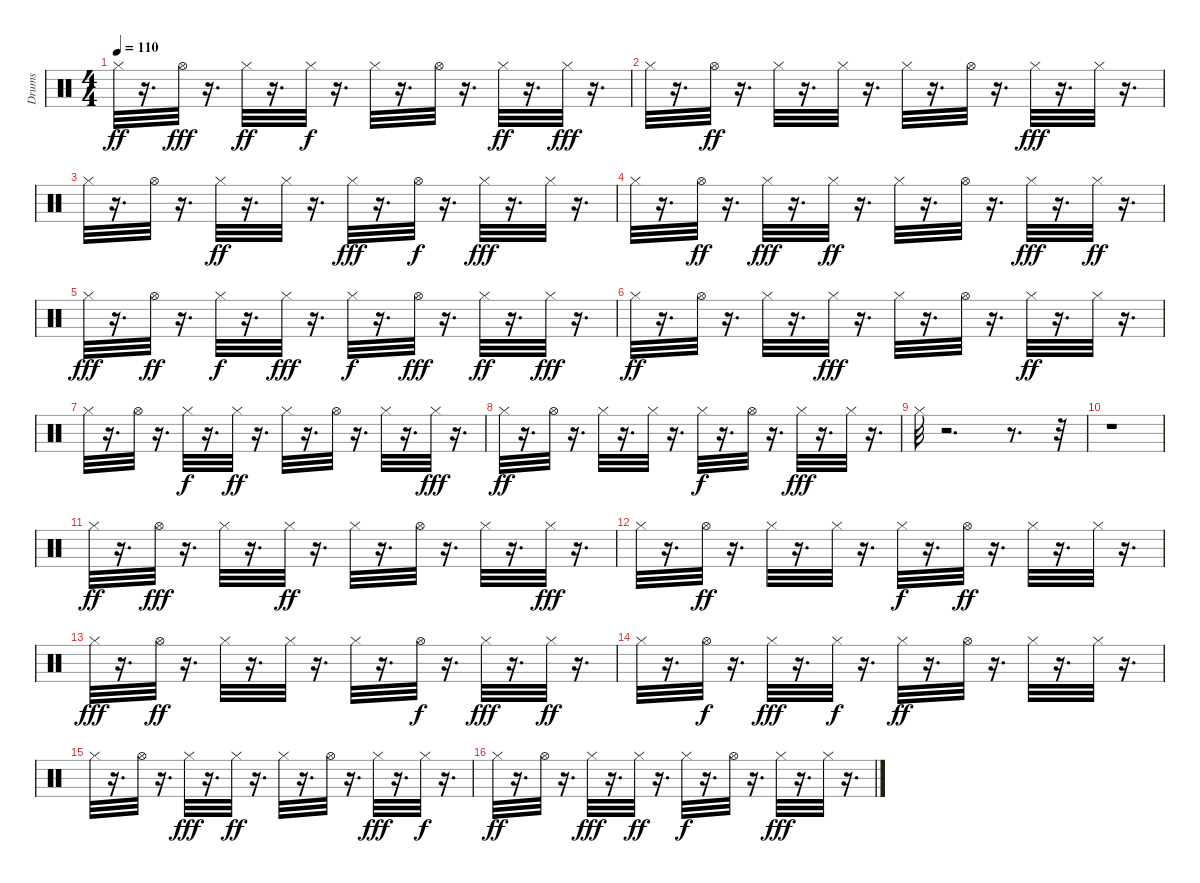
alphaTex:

\track ("Drums" "Drums") {instrument percussion}
\staff {score}
\articulation defaults
\ts (4 4)
\tempo 110
\clef neutral
\ks c "Hi-Hat (closed)".32{dy ff}
r.16{d} "Hi-Hat (open)".32{dy fff} r.16{d} "Hi-Hat (closed)".32{dy ff} r.16{d} "Hi-Hat (closed)".32{dy f} r.16{d} "Hi-Hat (closed)".32 r.16{d} "Hi-Hat (open)".32 r.16{d} "Hi-Hat (closed)".32{dy ff} r.16{d} "Hi-Hat (closed)".32{dy fff} r.16{d} |
"Hi-Hat (closed)".32 r.16{d} "Hi-Hat (open)".32{dy ff} r.16{d} "Hi-Hat (closed)".32 r.16{d} "Hi-Hat (closed)".32 r.16{d} "Hi-Hat (closed)".32 r.16{d} "Hi-Hat (open)".32 r.16{d} "Hi-Hat (closed)".32{dy fff} r.16{d} "Hi-Hat (closed)".32 r.16{d} |
"Hi-Hat (closed)".32 r.16{d} "Hi-Hat (open)".32 r.16{d} "Hi-Hat (closed)".32{dy ff} r.16{d} "Hi-Hat (closed)".32 r.16{d} "Hi-Hat (closed)".32{dy fff} r.16{d} "Hi-Hat (open)".32{dy f} r.16{d} "Hi-Hat (closed)".32{dy fff} r.16{d} "Hi-Hat (closed)".32 r.16{d} |
"Hi-Hat (closed)".32 r.16{d} "Hi-Hat (open)".32{dy ff} r.16{d} "Hi-Hat (closed)".32{dy fff} r.16{d} "Hi-Hat (closed)".32{dy ff} r.16{d} "Hi-Hat (closed)".32 r.16{d} "Hi-Hat (open)".32 r.16{d} "Hi-Hat (closed)".32{dy fff} r.16{d} "Hi-Hat (closed)".32{dy ff} r.16{d} |
"Hi-Hat (closed)".32{dy fff} r.16{d} "Hi-Hat (open)".32{dy ff} r.16{d} "Hi-Hat (closed)".32{dy f} r.16{d} "Hi-Hat (closed)".32{dy fff} r.16{d} "Hi-Hat (closed)".32{dy f} r.16{d} "Hi-Hat (open)".32{dy fff} r.16{d} "Hi-Hat (closed)".32{dy ff} r.16{d} "Hi-Hat (closed)".32{dy fff} r.16{d} |
"Hi-Hat (closed)".32{dy ff} r.16{d} "Hi-Hat (open)".32 r.16{d} "Hi-Hat (closed)".32 r.16{d} "Hi-Hat (closed)".32{dy fff} r.16{d} "Hi-Hat (closed)".32 r.16{d} "Hi-Hat (open)".32 r.16{d} "Hi-Hat (closed)".32{dy ff} r.16{d} "Hi-Hat (closed)".32 r.16{d} |
"Hi-Hat (closed)".32 r.16{d} "Hi-Hat (open)".32 r.16{d} "Hi-Hat (closed)".32{dy f} r.16{d} "Hi-Hat (closed)".32{dy ff} r.16{d} "Hi-Hat (closed)".32 r.16{d} "Hi-Hat (open)".32 r.16{d} "Hi-Hat (closed)".32 r.16{d} "Hi-Hat (closed)".32{dy fff} r.16{d} |
"Hi-Hat (closed)".32{dy ff} r.16{d} "Hi-Hat (open)".32 r.16{d} "Hi-Hat (closed)".32 r.16{d} "Hi-Hat (closed)".32 r.16{d} "Hi-Hat (closed)".32{dy f} r.16{d} "Hi-Hat (open)".32 r.16{d} "Hi-Hat (closed)".32{dy fff} r.16{d} "Hi-Hat (closed)".32 r.16{d} |
"Hi-Hat (closed)".32 r.2{d} r.8{d} r.32 |
r.1 |
"Hi-Hat (closed)".32{dy ff} r.16{d} "Hi-Hat (open)".32{dy fff} r.16{d} "Hi-Hat (closed)".32 r.16{d} "Hi-Hat (closed)".32{dy ff} r.16{d} "Hi-Hat (closed)".32 r.16{d} "Hi-Hat (open)".32 r.16{d} "Hi-Hat (closed)".32 r.16{d} "Hi-Hat (closed)".32{dy fff} r.16{d} |
"Hi-Hat (closed)".32 r.16{d} "Hi-Hat (open)".32{dy ff} r.16{d} "Hi-Hat (closed)".32 r.16{d} "Hi-Hat (closed)".32 r.16{d} "Hi-Hat (closed)".32{dy f} r.16{d} "Hi-Hat (open)".32{dy ff} r.16{d} "Hi-Hat (closed)".32 r.16{d} "Hi-Hat (closed)".32 r.16{d} |
"Hi-Hat (closed)".32{dy fff} r.16{d} "Hi-Hat (open)".32{dy ff} r.16{d} "Hi-Hat (closed)".32 r.16{d} "Hi-Hat (closed)".32 r.16{d} "Hi-Hat (closed)".32 r.16{d} "Hi-Hat (open)".32{dy f} r.16{d} "Hi-Hat (closed)".32{dy fff} r.16{d} "Hi-Hat (closed)".32{dy ff} r.16{d} |
"Hi-Hat (closed)".32 r.16{d} "Hi-Hat (open)".32{dy f} r.16{d} "Hi-Hat (closed)".32{dy fff} r.16{d} "Hi-Hat (closed)".32{dy f} r.16{d} "Hi-Hat (closed)".32{dy ff} r.16{d} "Hi-Hat (open)".32 r.16{d} "Hi-Hat (closed)".32 r.16{d} "Hi-Hat (closed)".32 r.16{d} |
"Hi-Hat (closed)".32 r.16{d} "Hi-Hat (open)".32 r.16{d} "Hi-Hat (closed)".32{dy fff} r.16{d} "Hi-Hat (closed)".32{dy ff} r.16{d} "Hi-Hat (closed)".32 r.16{d} "Hi-Hat (open)".32 r.16{d} "Hi-Hat (closed)".32{dy fff} r.16{d} "Hi-Hat (closed)".32{dy f} r.16{d} |
"Hi-Hat (closed)".32{dy ff} r.16{d} "Hi-Hat (open)".32 r.16{d} "Hi-Hat (closed)".32{dy fff} r.16{d} "Hi-Hat (closed)".32{dy ff} r.16{d} "Hi-Hat (closed)".32{dy f} r.16{d} "Hi-Hat (open)".32 r.16{d} "Hi-Hat (closed)".32{dy fff} r.16{d} "Hi-Hat (closed)".32 r.16{d}
